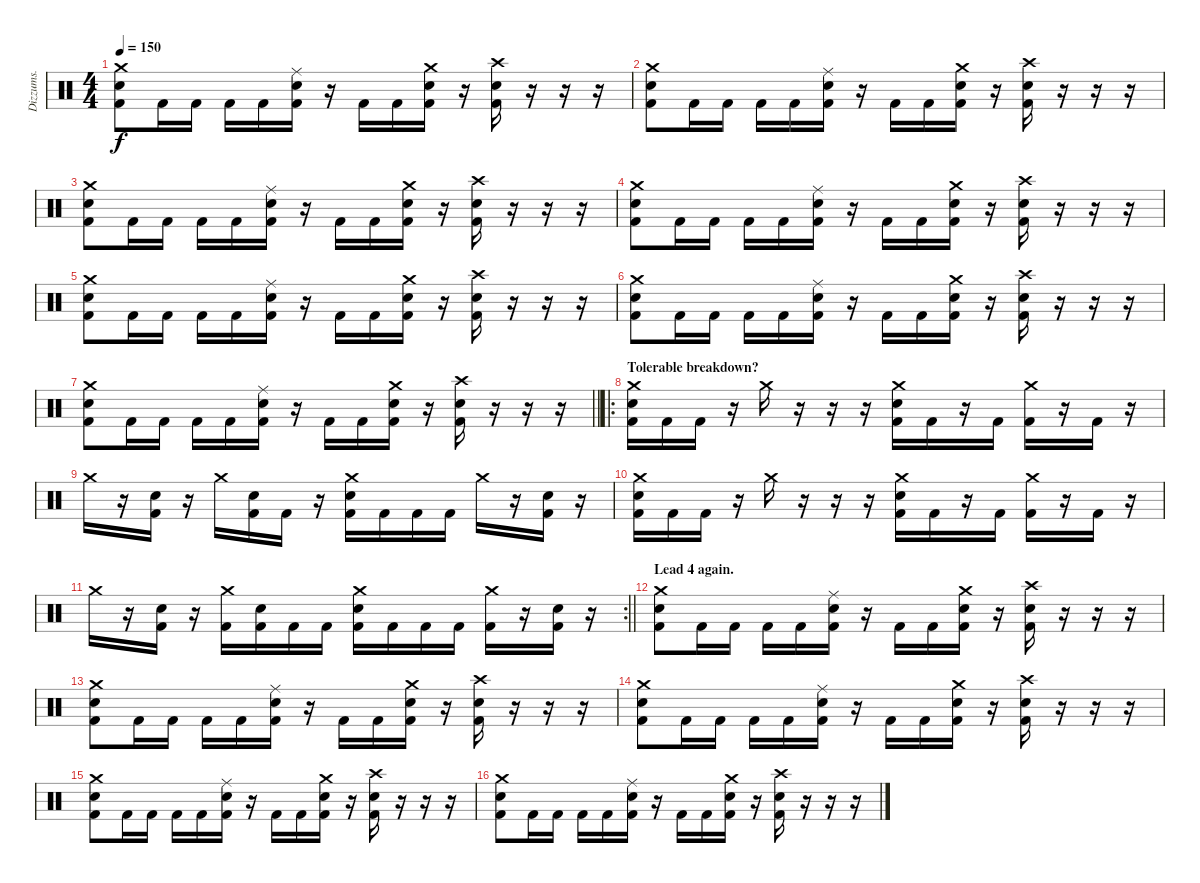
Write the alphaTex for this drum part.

\track ("Dizzums." "Dizzums.") {instrument percussion}
\staff {score}
\articulation defaults
\ts (4 4)
\tempo 150
\clef neutral
\ks c
("Crash medium (hit)" "Electric Snare (hit)" "Kick (hit) 2").8{dy f} "Kick (hit) 2".16 "Kick (hit) 2".16 "Kick (hit) 2".16 "Kick (hit) 2".16 ("Ride (middle)" "Electric Snare (hit)" "Kick (hit) 2").16 r.16 "Kick (hit) 2".16 "Kick (hit) 2".16 ("Crash medium (hit)" "Electric Snare (hit)" "Kick (hit) 2").16 r.16 ("Crash high (hit)" "Electric Snare (hit)" "Kick (hit) 2").16 r.16 r.16 r.16 |
("Crash medium (hit)" "Electric Snare (hit)" "Kick (hit) 2").8 "Kick (hit) 2".16 "Kick (hit) 2".16 "Kick (hit) 2".16 "Kick (hit) 2".16 ("Ride (middle)" "Electric Snare (hit)" "Kick (hit) 2").16 r.16 "Kick (hit) 2".16 "Kick (hit) 2".16 ("Crash medium (hit)" "Electric Snare (hit)" "Kick (hit) 2").16 r.16 ("Crash high (hit)" "Electric Snare (hit)" "Kick (hit) 2").16 r.16 r.16 r.16 |
("Crash medium (hit)" "Electric Snare (hit)" "Kick (hit) 2").8 "Kick (hit) 2".16 "Kick (hit) 2".16 "Kick (hit) 2".16 "Kick (hit) 2".16 ("Ride (middle)" "Electric Snare (hit)" "Kick (hit) 2").16 r.16 "Kick (hit) 2".16 "Kick (hit) 2".16 ("Crash medium (hit)" "Electric Snare (hit)" "Kick (hit) 2").16 r.16 ("Crash high (hit)" "Electric Snare (hit)" "Kick (hit) 2").16 r.16 r.16 r.16 |
("Crash medium (hit)" "Electric Snare (hit)" "Kick (hit) 2").8 "Kick (hit) 2".16 "Kick (hit) 2".16 "Kick (hit) 2".16 "Kick (hit) 2".16 ("Ride (middle)" "Electric Snare (hit)" "Kick (hit) 2").16 r.16 "Kick (hit) 2".16 "Kick (hit) 2".16 ("Crash medium (hit)" "Electric Snare (hit)" "Kick (hit) 2").16 r.16 ("Crash high (hit)" "Electric Snare (hit)" "Kick (hit) 2").16 r.16 r.16 r.16 |
("Crash medium (hit)" "Electric Snare (hit)" "Kick (hit) 2").8 "Kick (hit) 2".16 "Kick (hit) 2".16 "Kick (hit) 2".16 "Kick (hit) 2".16 ("Ride (middle)" "Electric Snare (hit)" "Kick (hit) 2").16 r.16 "Kick (hit) 2".16 "Kick (hit) 2".16 ("Crash medium (hit)" "Electric Snare (hit)" "Kick (hit) 2").16 r.16 ("Crash high (hit)" "Electric Snare (hit)" "Kick (hit) 2").16 r.16 r.16 r.16 |
("Crash medium (hit)" "Electric Snare (hit)" "Kick (hit) 2").8 "Kick (hit) 2".16 "Kick (hit) 2".16 "Kick (hit) 2".16 "Kick (hit) 2".16 ("Ride (middle)" "Electric Snare (hit)" "Kick (hit) 2").16 r.16 "Kick (hit) 2".16 "Kick (hit) 2".16 ("Crash medium (hit)" "Electric Snare (hit)" "Kick (hit) 2").16 r.16 ("Crash high (hit)" "Electric Snare (hit)" "Kick (hit) 2").16 r.16 r.16 r.16 |
\barLineRight lightlight
("Crash medium (hit)" "Electric Snare (hit)" "Kick (hit) 2").8 "Kick (hit) 2".16 "Kick (hit) 2".16 "Kick (hit) 2".16 "Kick (hit) 2".16 ("Ride (middle)" "Electric Snare (hit)" "Kick (hit) 2").16 r.16 "Kick (hit) 2".16 "Kick (hit) 2".16 ("Crash medium (hit)" "Electric Snare (hit)" "Kick (hit) 2").16 r.16 ("Crash high (hit)" "Electric Snare (hit)" "Kick (hit) 2").16 r.16 r.16 r.16 |
\ro
\section ("" "Tolerable breakdown?")
("Crash medium (hit)" "Electric Snare (hit)" "Kick (hit) 2").16 "Kick (hit) 2".16 "Kick (hit) 2".16 r.16 "Crash medium (hit)".16 r.16 r.16 r.16 ("Crash medium (hit)" "Electric Snare (hit)" "Kick (hit) 2").16 "Kick (hit) 2".16 r.16 "Kick (hit) 2".16 ("Crash medium (hit)" "Kick (hit) 2").16 r.16 "Kick (hit) 2".16 r.16 |
"Crash medium (hit)".16 r.16 ("Electric Snare (hit)" "Kick (hit) 2").16 r.16 "Crash medium (hit)".16 ("Electric Snare (hit)" "Kick (hit) 2").16 "Kick (hit) 2".16 r.16 ("Crash medium (hit)" "Electric Snare (hit)" "Kick (hit) 2").16 "Kick (hit) 2".16 "Kick (hit) 2".16 "Kick (hit) 2".16 "Crash medium (hit)".16 r.16 ("Electric Snare (hit)" "Kick (hit) 2").16 r.16 |
("Crash medium (hit)" "Electric Snare (hit)" "Kick (hit) 2").16 "Kick (hit) 2".16 "Kick (hit) 2".16 r.16 "Crash medium (hit)".16 r.16 r.16 r.16 ("Crash medium (hit)" "Electric Snare (hit)" "Kick (hit) 2").16 "Kick (hit) 2".16 r.16 "Kick (hit) 2".16 ("Crash medium (hit)" "Kick (hit) 2").16 r.16 "Kick (hit) 2".16 r.16 |
\rc 2
\barLineRight lightlight "Crash medium (hit)".16
r.16 ("Electric Snare (hit)" "Kick (hit) 2").16 r.16 ("Crash medium (hit)" "Kick (hit) 2").16 ("Electric Snare (hit)" "Kick (hit) 2").16 "Kick (hit) 2".16 "Kick (hit) 2".16 ("Crash medium (hit)" "Electric Snare (hit)" "Kick (hit) 2").16 "Kick (hit) 2".16 "Kick (hit) 2".16 "Kick (hit) 2".16 ("Crash medium (hit)" "Kick (hit) 2").16 r.16 ("Electric Snare (hit)" "Kick (hit) 2").16 r.16 |
\section ("" "Lead 4 again.")
("Crash medium (hit)" "Electric Snare (hit)" "Kick (hit) 2").8 "Kick (hit) 2".16 "Kick (hit) 2".16 "Kick (hit) 2".16 "Kick (hit) 2".16 ("Ride (middle)" "Electric Snare (hit)" "Kick (hit) 2").16 r.16 "Kick (hit) 2".16 "Kick (hit) 2".16 ("Crash medium (hit)" "Electric Snare (hit)" "Kick (hit) 2").16 r.16 ("Crash high (hit)" "Electric Snare (hit)" "Kick (hit) 2").16 r.16 r.16 r.16 |
("Crash medium (hit)" "Electric Snare (hit)" "Kick (hit) 2").8 "Kick (hit) 2".16 "Kick (hit) 2".16 "Kick (hit) 2".16 "Kick (hit) 2".16 ("Ride (middle)" "Electric Snare (hit)" "Kick (hit) 2").16 r.16 "Kick (hit) 2".16 "Kick (hit) 2".16 ("Crash medium (hit)" "Electric Snare (hit)" "Kick (hit) 2").16 r.16 ("Crash high (hit)" "Electric Snare (hit)" "Kick (hit) 2").16 r.16 r.16 r.16 |
("Crash medium (hit)" "Electric Snare (hit)" "Kick (hit) 2").8 "Kick (hit) 2".16 "Kick (hit) 2".16 "Kick (hit) 2".16 "Kick (hit) 2".16 ("Ride (middle)" "Electric Snare (hit)" "Kick (hit) 2").16 r.16 "Kick (hit) 2".16 "Kick (hit) 2".16 ("Crash medium (hit)" "Electric Snare (hit)" "Kick (hit) 2").16 r.16 ("Crash high (hit)" "Electric Snare (hit)" "Kick (hit) 2").16 r.16 r.16 r.16 |
("Crash medium (hit)" "Electric Snare (hit)" "Kick (hit) 2").8 "Kick (hit) 2".16 "Kick (hit) 2".16 "Kick (hit) 2".16 "Kick (hit) 2".16 ("Ride (middle)" "Electric Snare (hit)" "Kick (hit) 2").16 r.16 "Kick (hit) 2".16 "Kick (hit) 2".16 ("Crash medium (hit)" "Electric Snare (hit)" "Kick (hit) 2").16 r.16 ("Crash high (hit)" "Electric Snare (hit)" "Kick (hit) 2").16 r.16 r.16 r.16 |
("Crash medium (hit)" "Electric Snare (hit)" "Kick (hit) 2").8 "Kick (hit) 2".16 "Kick (hit) 2".16 "Kick (hit) 2".16 "Kick (hit) 2".16 ("Ride (middle)" "Electric Snare (hit)" "Kick (hit) 2").16 r.16 "Kick (hit) 2".16 "Kick (hit) 2".16 ("Crash medium (hit)" "Electric Snare (hit)" "Kick (hit) 2").16 r.16 ("Crash high (hit)" "Electric Snare (hit)" "Kick (hit) 2").16 r.16 r.16 r.16
